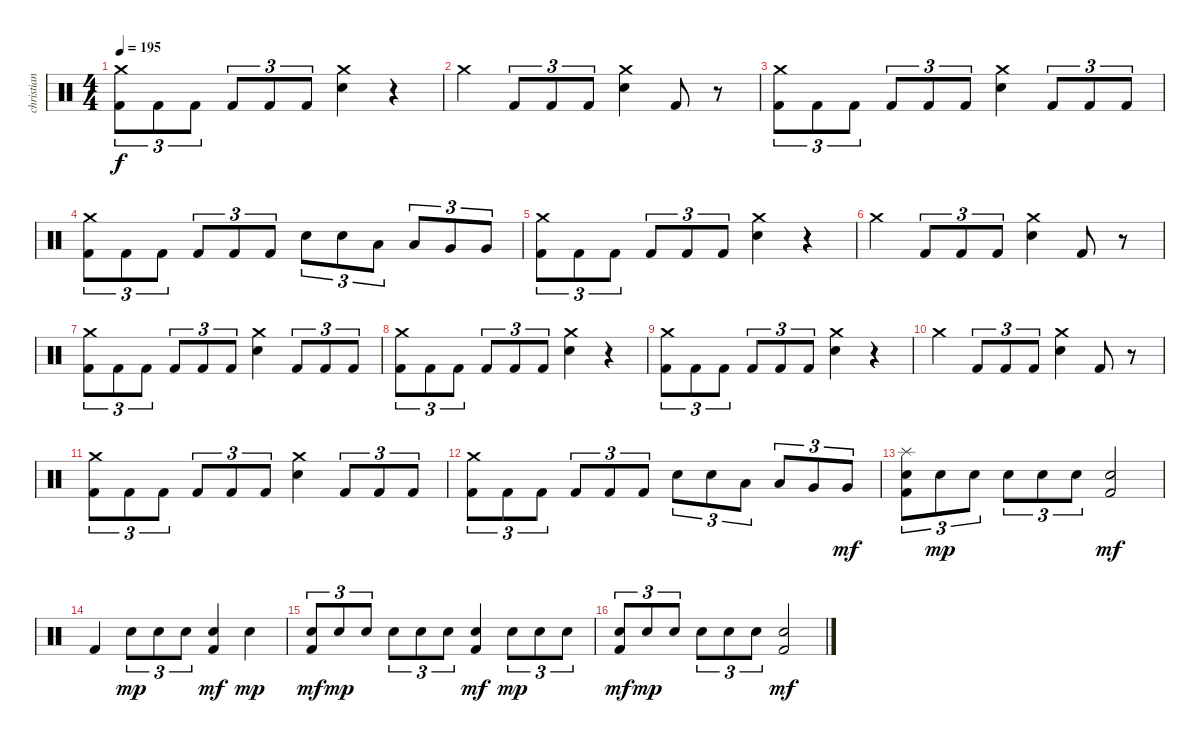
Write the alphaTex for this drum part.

\track ("christian" "christian") {instrument percussion}
\staff {score}
\articulation defaults
\ts (4 4)
\tempo 195
\clef neutral
\ks c
("Crash medium (hit)" "Kick (hit) 2").8{tu (3 2) dy f} "Kick (hit) 2".8{tu (3 2)} "Kick (hit) 2".8{tu (3 2)} "Kick (hit) 2".8{tu (3 2)} "Kick (hit) 2".8{tu (3 2)} "Kick (hit) 2".8{tu (3 2)} ("Crash medium (hit)" "Electric Snare (hit)").4 r.4 |
"Crash medium (hit)".4 "Kick (hit) 2".8{tu (3 2)} "Kick (hit) 2".8{tu (3 2)} "Kick (hit) 2".8{tu (3 2)} ("Crash medium (hit)" "Electric Snare (hit)").4 "Kick (hit) 2".8 r.8 |
("Crash medium (hit)" "Kick (hit) 2").8{tu (3 2)} "Kick (hit) 2".8{tu (3 2)} "Kick (hit) 2".8{tu (3 2)} "Kick (hit) 2".8{tu (3 2)} "Kick (hit) 2".8{tu (3 2)} "Kick (hit) 2".8{tu (3 2)} ("Crash medium (hit)" "Electric Snare (hit)").4 "Kick (hit) 2".8{tu (3 2)} "Kick (hit) 2".8{tu (3 2)} "Kick (hit) 2".8{tu (3 2)} |
("Crash medium (hit)" "Kick (hit) 2").8{tu (3 2)} "Kick (hit) 2".8{tu (3 2)} "Kick (hit) 2".8{tu (3 2)} "Kick (hit) 2".8{tu (3 2)} "Kick (hit) 2".8{tu (3 2)} "Kick (hit) 2".8{tu (3 2)} "Electric Snare (hit)".8{tu (3 2)} "Electric Snare (hit)".8{tu (3 2)} "Low Tom (hit)".8{tu (3 2)} "Low Tom (hit)".8{tu (3 2)} "Very Low Tom (hit)".8{tu (3 2)} "Very Low Tom (hit)".8{tu (3 2)} |
("Crash medium (hit)" "Kick (hit) 2").8{tu (3 2)} "Kick (hit) 2".8{tu (3 2)} "Kick (hit) 2".8{tu (3 2)} "Kick (hit) 2".8{tu (3 2)} "Kick (hit) 2".8{tu (3 2)} "Kick (hit) 2".8{tu (3 2)} ("Crash medium (hit)" "Electric Snare (hit)").4 r.4 |
"Crash medium (hit)".4 "Kick (hit) 2".8{tu (3 2)} "Kick (hit) 2".8{tu (3 2)} "Kick (hit) 2".8{tu (3 2)} ("Crash medium (hit)" "Electric Snare (hit)").4 "Kick (hit) 2".8 r.8 |
("Crash medium (hit)" "Kick (hit) 2").8{tu (3 2)} "Kick (hit) 2".8{tu (3 2)} "Kick (hit) 2".8{tu (3 2)} "Kick (hit) 2".8{tu (3 2)} "Kick (hit) 2".8{tu (3 2)} "Kick (hit) 2".8{tu (3 2)} ("Crash medium (hit)" "Electric Snare (hit)").4 "Kick (hit) 2".8{tu (3 2)} "Kick (hit) 2".8{tu (3 2)} "Kick (hit) 2".8{tu (3 2)} |
("Crash medium (hit)" "Kick (hit) 2").8{tu (3 2)} "Kick (hit) 2".8{tu (3 2)} "Kick (hit) 2".8{tu (3 2)} "Kick (hit) 2".8{tu (3 2)} "Kick (hit) 2".8{tu (3 2)} "Kick (hit) 2".8{tu (3 2)} ("Crash medium (hit)" "Electric Snare (hit)").4 r.4 |
("Crash medium (hit)" "Kick (hit) 2").8{tu (3 2)} "Kick (hit) 2".8{tu (3 2)} "Kick (hit) 2".8{tu (3 2)} "Kick (hit) 2".8{tu (3 2)} "Kick (hit) 2".8{tu (3 2)} "Kick (hit) 2".8{tu (3 2)} ("Crash medium (hit)" "Electric Snare (hit)").4 r.4 |
"Crash medium (hit)".4 "Kick (hit) 2".8{tu (3 2)} "Kick (hit) 2".8{tu (3 2)} "Kick (hit) 2".8{tu (3 2)} ("Crash medium (hit)" "Electric Snare (hit)").4 "Kick (hit) 2".8 r.8 |
("Crash medium (hit)" "Kick (hit) 2").8{tu (3 2)} "Kick (hit) 2".8{tu (3 2)} "Kick (hit) 2".8{tu (3 2)} "Kick (hit) 2".8{tu (3 2)} "Kick (hit) 2".8{tu (3 2)} "Kick (hit) 2".8{tu (3 2)} ("Crash medium (hit)" "Electric Snare (hit)").4 "Kick (hit) 2".8{tu (3 2)} "Kick (hit) 2".8{tu (3 2)} "Kick (hit) 2".8{tu (3 2)} |
("Crash medium (hit)" "Kick (hit) 2").8{tu (3 2)} "Kick (hit) 2".8{tu (3 2)} "Kick (hit) 2".8{tu (3 2)} "Kick (hit) 2".8{tu (3 2)} "Kick (hit) 2".8{tu (3 2)} "Kick (hit) 2".8{tu (3 2)} "Electric Snare (hit)".8{tu (3 2)} "Electric Snare (hit)".8{tu (3 2)} "Low Tom (hit)".8{tu (3 2)} "Low Tom (hit)".8{tu (3 2)} "Very Low Tom (hit)".8{tu (3 2)} "Very Low Tom (hit)".8{tu (3 2) dy mf} |
("Splash (hit)" "Electric Snare (hit)" "Kick (hit) 2").8{tu (3 2)} "Electric Snare (hit)".8{tu (3 2) dy mp} "Electric Snare (hit)".8{tu (3 2)} "Electric Snare (hit)".8{tu (3 2)} "Electric Snare (hit)".8{tu (3 2)} "Electric Snare (hit)".8{tu (3 2)} ("Electric Snare (hit)" "Kick (hit) 2").2{dy mf} |
"Kick (hit) 2".4 "Electric Snare (hit)".8{tu (3 2) dy mp} "Electric Snare (hit)".8{tu (3 2)} "Electric Snare (hit)".8{tu (3 2)} ("Electric Snare (hit)" "Kick (hit) 2").4{dy mf} "Electric Snare (hit)".4{dy mp} |
("Electric Snare (hit)" "Kick (hit) 2").8{tu (3 2) dy mf} "Electric Snare (hit)".8{tu (3 2) dy mp} "Electric Snare (hit)".8{tu (3 2)} "Electric Snare (hit)".8{tu (3 2)} "Electric Snare (hit)".8{tu (3 2)} "Electric Snare (hit)".8{tu (3 2)} ("Electric Snare (hit)" "Kick (hit) 2").4{dy mf} "Electric Snare (hit)".8{tu (3 2) dy mp} "Electric Snare (hit)".8{tu (3 2)} "Electric Snare (hit)".8{tu (3 2)} |
("Electric Snare (hit)" "Kick (hit) 2").8{tu (3 2) dy mf} "Electric Snare (hit)".8{tu (3 2) dy mp} "Electric Snare (hit)".8{tu (3 2)} "Electric Snare (hit)".8{tu (3 2)} "Electric Snare (hit)".8{tu (3 2)} "Electric Snare (hit)".8{tu (3 2)} ("Electric Snare (hit)" "Kick (hit) 2").2{dy mf}
